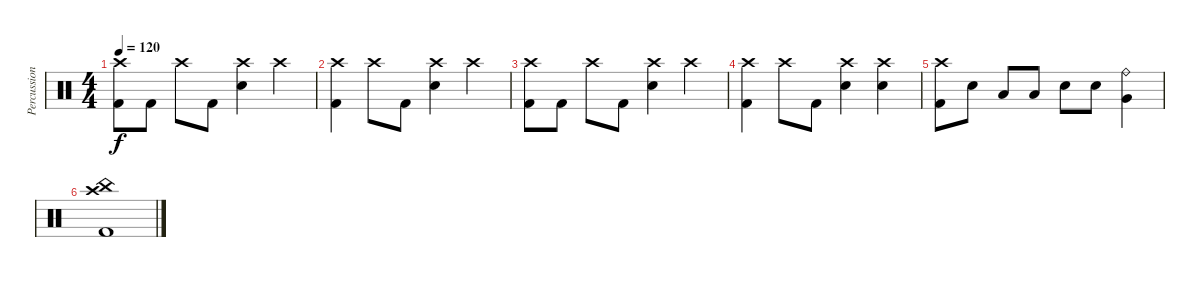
\track ("Percussion" "Percussion") {instrument percussion}
\staff {score}
\articulation defaults
\ts (4 4)
\tempo 120
\clef neutral
\ks c
("Kick (hit) 2" "Crash high (hit)").8{dy f} "Kick (hit) 2".8 "Crash high (hit)".8 "Kick (hit) 2".8 ("Electric Snare (hit)" "Crash high (hit)").4 "Crash high (hit)".4 |
("Kick (hit) 2" "Crash high (hit)").4 "Crash high (hit)".8 "Kick (hit) 2".8 ("Electric Snare (hit)" "Crash high (hit)").4 "Crash high (hit)".4 |
("Kick (hit) 2" "Crash high (hit)").8 "Kick (hit) 2".8 "Crash high (hit)".8 "Kick (hit) 2".8 ("Electric Snare (hit)" "Crash high (hit)").4 "Crash high (hit)".4 |
("Kick (hit) 2" "Crash high (hit)").4 "Crash high (hit)".8 "Kick (hit) 2".8 ("Electric Snare (hit)" "Crash high (hit)").4 ("Crash high (hit)" "Electric Snare (hit)").4 |
("Kick (hit) 2" "Crash high (hit)").8 "Electric Snare (hit)".8 "Low Floor Tom (hit)".8 "Low Floor Tom (hit)".8 "Electric Snare (hit)".8 "Electric Snare (hit)".8 ("Ride (bell)" "Very Low Tom (hit)").4 |
("Kick (hit) 2" "Crash high (hit)" "China (hit)").1
